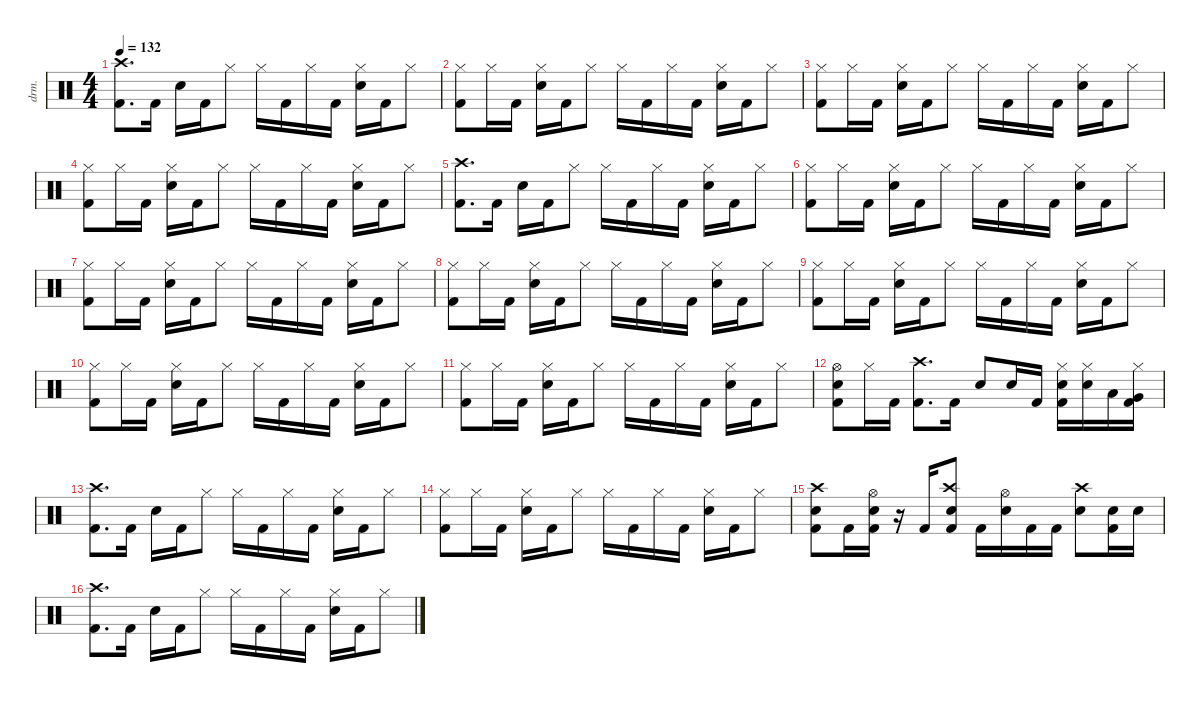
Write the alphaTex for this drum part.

\defaultSystemsLayout 4
\hideDynamics
\bracketExtendMode nobrackets
\track ("drums" "drm.") {instrument percussion}
\staff {score}
\articulation defaults
\ts (4 4)
\tempo 132
\clef neutral
\ks c
("Kick (hit) 2" "Crash high (hit)").8{d dy fff} "Kick (hit) 2".16 "Snare (hit) 2".16 "Kick (hit) 2".16 "Hi-Hat (closed)".8 "Hi-Hat (closed)".16 "Kick (hit) 2".16 "Hi-Hat (closed)".16 "Kick (hit) 2".16 ("Snare (hit) 2" "Hi-Hat (closed)").16 "Kick (hit) 2".16 "Hi-Hat (closed)".8 |
("Kick (hit) 2" "Hi-Hat (closed)").8 "Hi-Hat (closed)".16 "Kick (hit) 2".16 ("Snare (hit) 2" "Hi-Hat (closed)").16 "Kick (hit) 2".16 "Hi-Hat (closed)".8 "Hi-Hat (closed)".16 "Kick (hit) 2".16 "Hi-Hat (closed)".16 "Kick (hit) 2".16 ("Snare (hit) 2" "Hi-Hat (closed)").16 "Kick (hit) 2".16 "Hi-Hat (closed)".8 |
("Kick (hit) 2" "Hi-Hat (closed)").8 "Hi-Hat (closed)".16 "Kick (hit) 2".16 ("Snare (hit) 2" "Hi-Hat (closed)").16 "Kick (hit) 2".16 "Hi-Hat (closed)".8 "Hi-Hat (closed)".16 "Kick (hit) 2".16 "Hi-Hat (closed)".16 "Kick (hit) 2".16 ("Snare (hit) 2" "Hi-Hat (closed)").16 "Kick (hit) 2".16 "Hi-Hat (closed)".8 |
("Kick (hit) 2" "Hi-Hat (closed)").8 "Hi-Hat (closed)".16 "Kick (hit) 2".16 ("Snare (hit) 2" "Hi-Hat (closed)").16 "Kick (hit) 2".16 "Hi-Hat (closed)".8 "Hi-Hat (closed)".16 "Kick (hit) 2".16 "Hi-Hat (closed)".16 "Kick (hit) 2".16 ("Snare (hit) 2" "Hi-Hat (closed)").16 "Kick (hit) 2".16 "Hi-Hat (closed)".8 |
("Kick (hit) 2" "Crash high (hit)").8{d} "Kick (hit) 2".16 "Snare (hit) 2".16 "Kick (hit) 2".16 "Hi-Hat (closed)".8 "Hi-Hat (closed)".16 "Kick (hit) 2".16 "Hi-Hat (closed)".16 "Kick (hit) 2".16 ("Snare (hit) 2" "Hi-Hat (closed)").16 "Kick (hit) 2".16 "Hi-Hat (closed)".8 |
("Kick (hit) 2" "Hi-Hat (closed)").8 "Hi-Hat (closed)".16 "Kick (hit) 2".16 ("Snare (hit) 2" "Hi-Hat (closed)").16 "Kick (hit) 2".16 "Hi-Hat (closed)".8 "Hi-Hat (closed)".16 "Kick (hit) 2".16 "Hi-Hat (closed)".16 "Kick (hit) 2".16 ("Snare (hit) 2" "Hi-Hat (closed)").16 "Kick (hit) 2".16 "Hi-Hat (closed)".8 |
("Kick (hit) 2" "Hi-Hat (closed)").8 "Hi-Hat (closed)".16 "Kick (hit) 2".16 ("Snare (hit) 2" "Hi-Hat (closed)").16 "Kick (hit) 2".16 "Hi-Hat (closed)".8 "Hi-Hat (closed)".16 "Kick (hit) 2".16 "Hi-Hat (closed)".16 "Kick (hit) 2".16 ("Snare (hit) 2" "Hi-Hat (closed)").16 "Kick (hit) 2".16 "Hi-Hat (closed)".8 |
("Kick (hit) 2" "Hi-Hat (closed)").8 "Hi-Hat (closed)".16 "Kick (hit) 2".16 ("Snare (hit) 2" "Hi-Hat (closed)").16 "Kick (hit) 2".16 "Hi-Hat (closed)".8 "Hi-Hat (closed)".16 "Kick (hit) 2".16 "Hi-Hat (closed)".16 "Kick (hit) 2".16 ("Snare (hit) 2" "Hi-Hat (closed)").16 "Kick (hit) 2".16 "Hi-Hat (closed)".8 |
("Kick (hit) 2" "Hi-Hat (closed)").8 "Hi-Hat (closed)".16 "Kick (hit) 2".16 ("Snare (hit) 2" "Hi-Hat (closed)").16 "Kick (hit) 2".16 "Hi-Hat (closed)".8 "Hi-Hat (closed)".16 "Kick (hit) 2".16 "Hi-Hat (closed)".16 "Kick (hit) 2".16 ("Snare (hit) 2" "Hi-Hat (closed)").16 "Kick (hit) 2".16 "Hi-Hat (closed)".8 |
("Kick (hit) 2" "Hi-Hat (closed)").8 "Hi-Hat (closed)".16 "Kick (hit) 2".16 ("Snare (hit) 2" "Hi-Hat (closed)").16 "Kick (hit) 2".16 "Hi-Hat (closed)".8 "Hi-Hat (closed)".16 "Kick (hit) 2".16 "Hi-Hat (closed)".16 "Kick (hit) 2".16 ("Snare (hit) 2" "Hi-Hat (closed)").16 "Kick (hit) 2".16 "Hi-Hat (closed)".8 |
("Kick (hit) 2" "Hi-Hat (closed)").8 "Hi-Hat (closed)".16 "Kick (hit) 2".16 ("Snare (hit) 2" "Hi-Hat (closed)").16 "Kick (hit) 2".16 "Hi-Hat (closed)".8 "Hi-Hat (closed)".16 "Kick (hit) 2".16 "Hi-Hat (closed)".16 "Kick (hit) 2".16 ("Snare (hit) 2" "Hi-Hat (closed)").16 "Kick (hit) 2".16 "Hi-Hat (closed)".8 |
("Kick (hit) 2" "Snare (hit) 2" "Hi-Hat (open)").8 "Hi-Hat (closed)".16 "Kick (hit) 2".16 ("Kick (hit) 2" "Crash high (hit)").8{d} "Kick (hit) 2".16 "Snare (hit) 2".8 "Snare (hit) 2".16 "Kick (hit) 2".16 ("Kick (hit) 2" "Snare (hit) 2" "Hi-Hat (closed)").16 ("Snare (hit) 2" "Hi-Hat (closed)").16 "Low Tom (hit)".16 ("Kick (hit) 2" "Very Low Tom (hit)" "Hi-Hat (closed)").16 |
("Kick (hit) 2" "Crash high (hit)").8{d} "Kick (hit) 2".16 "Snare (hit) 2".16 "Kick (hit) 2".16 "Hi-Hat (closed)".8 "Hi-Hat (closed)".16 "Kick (hit) 2".16 "Hi-Hat (closed)".16 "Kick (hit) 2".16 ("Snare (hit) 2" "Hi-Hat (closed)").16 "Kick (hit) 2".16 "Hi-Hat (closed)".8 |
("Kick (hit) 2" "Hi-Hat (closed)").8 "Hi-Hat (closed)".16 "Kick (hit) 2".16 ("Snare (hit) 2" "Hi-Hat (closed)").16 "Kick (hit) 2".16 "Hi-Hat (closed)".8 "Hi-Hat (closed)".16 "Kick (hit) 2".16 "Hi-Hat (closed)".16 "Kick (hit) 2".16 ("Snare (hit) 2" "Hi-Hat (closed)").16 "Kick (hit) 2".16 "Hi-Hat (closed)".8 |
("Snare (hit) 2" "Crash high (hit)" "Kick (hit) 2").8 "Kick (hit) 2".16 ("Snare (hit) 2" "Kick (hit) 2" "Hi-Hat (open)").16 r.16 "Kick (hit) 2".16 ("Crash high (hit)" "Snare (hit) 2" "Kick (hit) 2").8 "Kick (hit) 2".16 ("Snare (hit) 2" "Hi-Hat (open)").16 "Kick (hit) 2".16 "Kick (hit) 2".16 ("Snare (hit) 2" "Crash high (hit)").8 ("Snare (hit) 2" "Kick (hit) 2").16 "Snare (hit) 2".16 |
("Kick (hit) 2" "Crash high (hit)").8{d} "Kick (hit) 2".16 "Snare (hit) 2".16 "Kick (hit) 2".16 "Hi-Hat (closed)".8 "Hi-Hat (closed)".16 "Kick (hit) 2".16 "Hi-Hat (closed)".16 "Kick (hit) 2".16 ("Snare (hit) 2" "Hi-Hat (closed)").16 "Kick (hit) 2".16 "Hi-Hat (closed)".8
